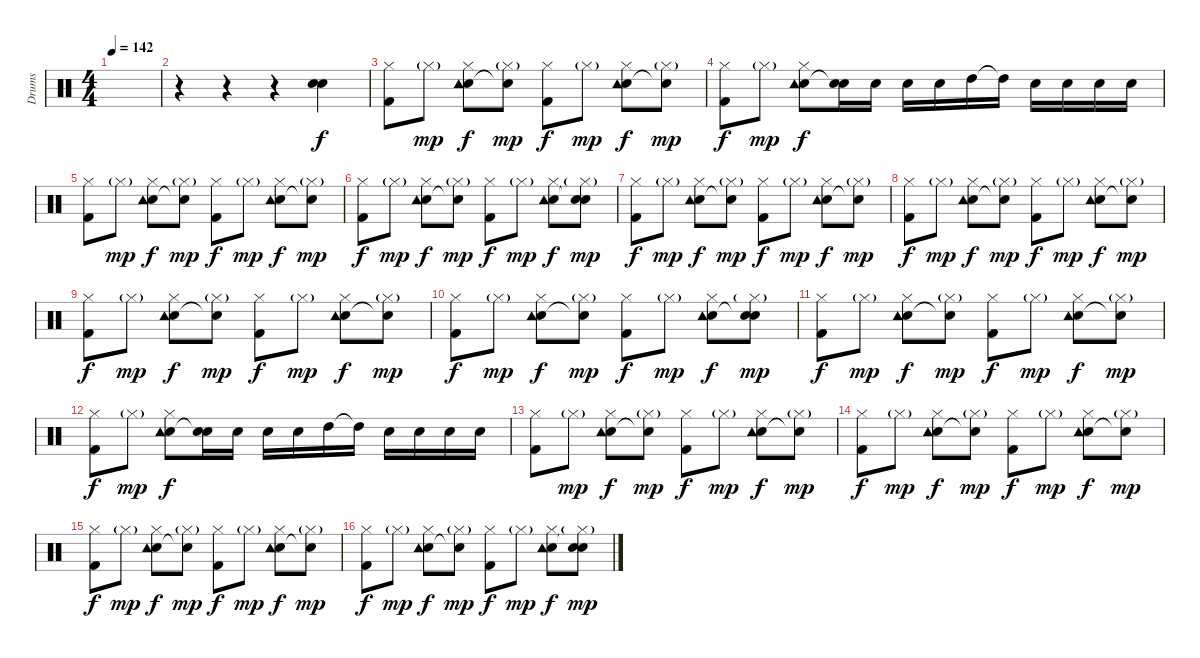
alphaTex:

\track ("Drums" "Drums") {instrument percussion}
\staff {score}
\articulation defaults
\ts (4 4)
\tempo 142
\clef neutral
\ks c
|
r.4 r.4 r.4 ("Snare (hit) 2" "Snare (hit) 2").4 |
("Hi-Hat (closed)" "Kick (hit) 2").8 "Hi-Hat (closed)"{g}.8{dy mp} ("Hi-Hat (closed)" "Snare (hit) 2" "Tambourine (hit)").8{dy f} ("Hi-Hat (closed)"{g} "Snare (hit)"{t}).8{dy mp} ("Hi-Hat (closed)" "Kick (hit) 2").8{dy f} "Hi-Hat (closed)"{g}.8{dy mp} ("Hi-Hat (closed)" "Snare (hit) 2" "Tambourine (hit)").8{dy f} ("Hi-Hat (closed)"{g} "Snare (hit)"{t}).8{dy mp} |
("Hi-Hat (closed)" "Kick (hit) 2").8{dy f} "Hi-Hat (closed)"{g}.8{dy mp} ("Hi-Hat (closed)" "Snare (hit) 2" "Tambourine (hit)").8{dy f} ("Snare (hit) 2" "Snare (hit)"{t}).16 "Snare (hit) 2".16 "Snare (hit) 2".16 "Snare (hit) 2".16 "High Tom (hit)".16 "High Tom (hit)"{t}.16 "Snare (hit) 2".16 "Snare (hit) 2".16 "Snare (hit) 2".16 "Snare (hit) 2".16 |
("Hi-Hat (closed)" "Kick (hit) 2").8 "Hi-Hat (closed)"{g}.8{dy mp} ("Hi-Hat (closed)" "Snare (hit) 2" "Tambourine (hit)").8{dy f} ("Hi-Hat (closed)"{g} "Snare (hit)"{t}).8{dy mp} ("Hi-Hat (closed)" "Kick (hit) 2").8{dy f} "Hi-Hat (closed)"{g}.8{dy mp} ("Hi-Hat (closed)" "Snare (hit) 2" "Tambourine (hit)").8{dy f} ("Hi-Hat (closed)"{g} "Snare (hit)"{t}).8{dy mp} |
("Hi-Hat (closed)" "Kick (hit) 2").8{dy f} "Hi-Hat (closed)"{g}.8{dy mp} ("Hi-Hat (closed)" "Snare (hit) 2" "Tambourine (hit)").8{dy f} ("Hi-Hat (closed)"{g} "Snare (hit)"{t}).8{dy mp} ("Hi-Hat (closed)" "Kick (hit) 2").8{dy f} "Hi-Hat (closed)"{g}.8{dy mp} ("Hi-Hat (closed)" "Snare (hit) 2" "Tambourine (hit)").8{dy f} ("Hi-Hat (closed)"{g} "Snare (hit) 2" "Snare (hit)"{t}).8{dy mp} |
("Hi-Hat (closed)" "Kick (hit) 2").8{dy f} "Hi-Hat (closed)"{g}.8{dy mp} ("Hi-Hat (closed)" "Snare (hit) 2" "Tambourine (hit)").8{dy f} ("Hi-Hat (closed)"{g} "Snare (hit)"{t}).8{dy mp} ("Hi-Hat (closed)" "Kick (hit) 2").8{dy f} "Hi-Hat (closed)"{g}.8{dy mp} ("Hi-Hat (closed)" "Snare (hit) 2" "Tambourine (hit)").8{dy f} ("Hi-Hat (closed)"{g} "Snare (hit)"{t}).8{dy mp} |
("Hi-Hat (closed)" "Kick (hit) 2").8{dy f} "Hi-Hat (closed)"{g}.8{dy mp} ("Hi-Hat (closed)" "Snare (hit) 2" "Tambourine (hit)").8{dy f} ("Hi-Hat (closed)"{g} "Snare (hit)"{t}).8{dy mp} ("Hi-Hat (closed)" "Kick (hit) 2").8{dy f} "Hi-Hat (closed)"{g}.8{dy mp} ("Hi-Hat (closed)" "Snare (hit) 2" "Tambourine (hit)").8{dy f} ("Hi-Hat (closed)"{g} "Snare (hit)"{t}).8{dy mp} |
("Hi-Hat (closed)" "Kick (hit) 2").8{dy f} "Hi-Hat (closed)"{g}.8{dy mp} ("Hi-Hat (closed)" "Snare (hit) 2" "Tambourine (hit)").8{dy f} ("Hi-Hat (closed)"{g} "Snare (hit)"{t}).8{dy mp} ("Hi-Hat (closed)" "Kick (hit) 2").8{dy f} "Hi-Hat (closed)"{g}.8{dy mp} ("Hi-Hat (closed)" "Snare (hit) 2" "Tambourine (hit)").8{dy f} ("Hi-Hat (closed)"{g} "Snare (hit)"{t}).8{dy mp} |
("Hi-Hat (closed)" "Kick (hit) 2").8{dy f} "Hi-Hat (closed)"{g}.8{dy mp} ("Hi-Hat (closed)" "Snare (hit) 2" "Tambourine (hit)").8{dy f} ("Hi-Hat (closed)"{g} "Snare (hit)"{t}).8{dy mp} ("Hi-Hat (closed)" "Kick (hit) 2").8{dy f} "Hi-Hat (closed)"{g}.8{dy mp} ("Hi-Hat (closed)" "Snare (hit) 2" "Tambourine (hit)").8{dy f} ("Hi-Hat (closed)"{g} "Snare (hit) 2" "Snare (hit)"{t}).8{dy mp} |
("Hi-Hat (closed)" "Kick (hit) 2").8{dy f} "Hi-Hat (closed)"{g}.8{dy mp} ("Hi-Hat (closed)" "Snare (hit) 2" "Tambourine (hit)").8{dy f} ("Hi-Hat (closed)"{g} "Snare (hit)"{t}).8{dy mp} ("Hi-Hat (closed)" "Kick (hit) 2").8{dy f} "Hi-Hat (closed)"{g}.8{dy mp} ("Hi-Hat (closed)" "Snare (hit) 2" "Tambourine (hit)").8{dy f} ("Hi-Hat (closed)"{g} "Snare (hit)"{t}).8{dy mp} |
("Hi-Hat (closed)" "Kick (hit) 2").8{dy f} "Hi-Hat (closed)"{g}.8{dy mp} ("Hi-Hat (closed)" "Snare (hit) 2" "Tambourine (hit)").8{dy f} ("Snare (hit) 2" "Snare (hit)"{t}).16 "Snare (hit) 2".16 "Snare (hit) 2".16 "Snare (hit) 2".16 "High Tom (hit)".16 "High Tom (hit)"{t}.16 "Snare (hit) 2".16 "Snare (hit) 2".16 "Snare (hit) 2".16 "Snare (hit) 2".16 |
("Hi-Hat (closed)" "Kick (hit) 2").8 "Hi-Hat (closed)"{g}.8{dy mp} ("Hi-Hat (closed)" "Snare (hit) 2" "Tambourine (hit)").8{dy f} ("Hi-Hat (closed)"{g} "Snare (hit)"{t}).8{dy mp} ("Hi-Hat (closed)" "Kick (hit) 2").8{dy f} "Hi-Hat (closed)"{g}.8{dy mp} ("Hi-Hat (closed)" "Snare (hit) 2" "Tambourine (hit)").8{dy f} ("Hi-Hat (closed)"{g} "Snare (hit)"{t}).8{dy mp} |
("Hi-Hat (closed)" "Kick (hit) 2").8{dy f} "Hi-Hat (closed)"{g}.8{dy mp} ("Hi-Hat (closed)" "Snare (hit) 2" "Tambourine (hit)").8{dy f} ("Hi-Hat (closed)"{g} "Snare (hit)"{t}).8{dy mp} ("Hi-Hat (closed)" "Kick (hit) 2").8{dy f} "Hi-Hat (closed)"{g}.8{dy mp} ("Hi-Hat (closed)" "Snare (hit) 2" "Tambourine (hit)").8{dy f} ("Hi-Hat (closed)"{g} "Snare (hit)"{t}).8{dy mp} |
("Hi-Hat (closed)" "Kick (hit) 2").8{dy f} "Hi-Hat (closed)"{g}.8{dy mp} ("Hi-Hat (closed)" "Snare (hit) 2" "Tambourine (hit)").8{dy f} ("Hi-Hat (closed)"{g} "Snare (hit)"{t}).8{dy mp} ("Hi-Hat (closed)" "Kick (hit) 2").8{dy f} "Hi-Hat (closed)"{g}.8{dy mp} ("Hi-Hat (closed)" "Snare (hit) 2" "Tambourine (hit)").8{dy f} ("Hi-Hat (closed)"{g} "Snare (hit)"{t}).8{dy mp} |
("Hi-Hat (closed)" "Kick (hit) 2").8{dy f} "Hi-Hat (closed)"{g}.8{dy mp} ("Hi-Hat (closed)" "Snare (hit) 2" "Tambourine (hit)").8{dy f} ("Hi-Hat (closed)"{g} "Snare (hit)"{t}).8{dy mp} ("Hi-Hat (closed)" "Kick (hit) 2").8{dy f} "Hi-Hat (closed)"{g}.8{dy mp} ("Hi-Hat (closed)" "Snare (hit) 2" "Tambourine (hit)").8{dy f} ("Hi-Hat (closed)"{g} "Snare (hit) 2" "Snare (hit)"{t}).8{dy mp}
